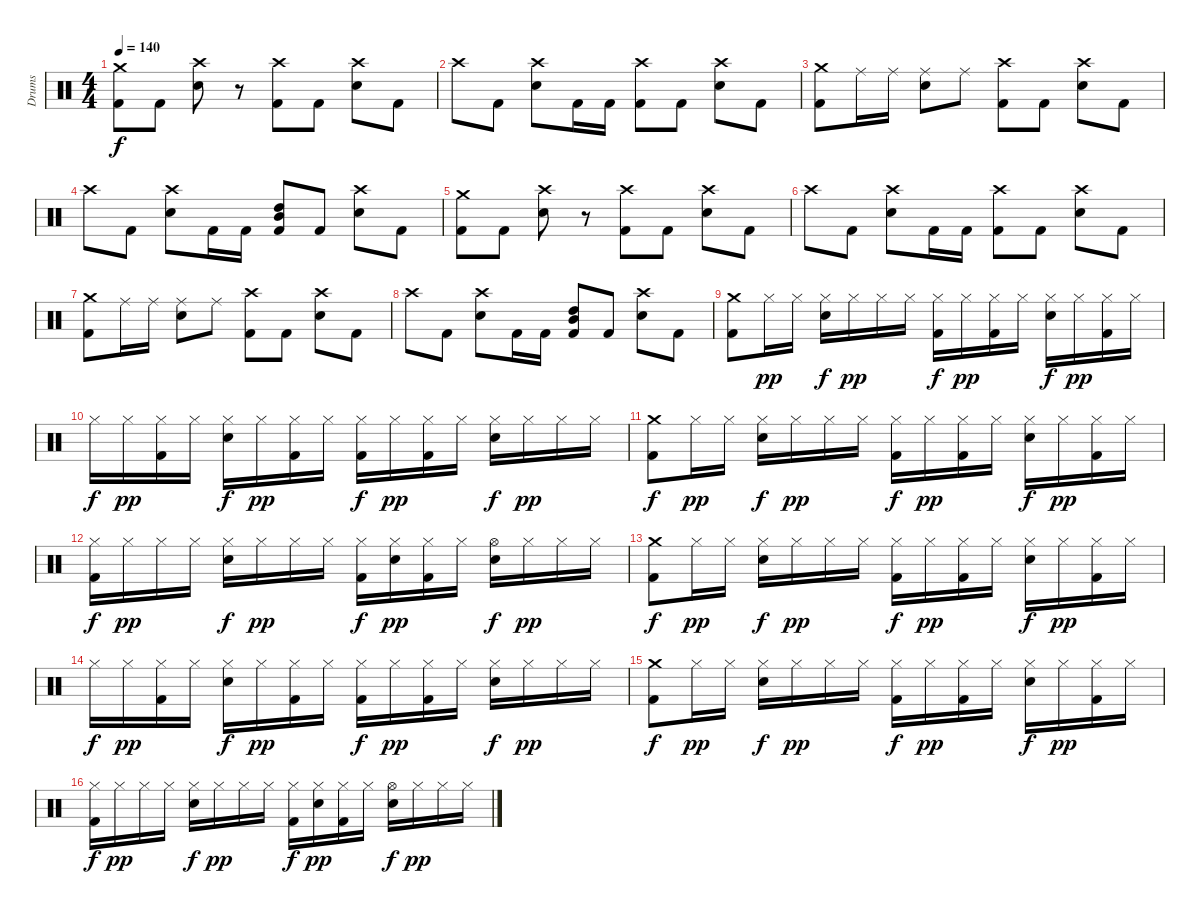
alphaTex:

\track ("Drums" "Drums") {instrument percussion}
\staff {score}
\articulation defaults
\ts (4 4)
\tempo 140
\clef neutral
\ks c
("Crash medium (hit)" "Kick (hit) 2").8{dy f} "Kick (hit) 2".8 ("Crash high (hit)" "Electric Snare (hit)").8 r.8 ("Crash high (hit)" "Kick (hit) 2").8 "Kick (hit) 2".8 ("Crash high (hit)" "Electric Snare (hit)").8 "Kick (hit) 2".8 |
"Crash high (hit)".8 "Kick (hit) 2".8 ("Crash high (hit)" "Electric Snare (hit)").8 "Kick (hit) 2".16 "Kick (hit) 2".16 ("Crash high (hit)" "Kick (hit) 2").8 "Kick (hit) 2".8 ("Crash high (hit)" "Electric Snare (hit)").8 "Kick (hit) 2".8 |
("Crash medium (hit)" "Kick (hit) 2").8 "Ride (middle)".16 "Ride (middle)".16 ("Ride (middle)" "Electric Snare (hit)").8 "Ride (middle)".8 ("Crash high (hit)" "Kick (hit) 2").8 "Kick (hit) 2".8 ("Crash high (hit)" "Electric Snare (hit)").8 "Kick (hit) 2".8 |
"Crash high (hit)".8 "Kick (hit) 2".8 ("Crash high (hit)" "Electric Snare (hit)").8 "Kick (hit) 2".16 "Kick (hit) 2".16 ("Mid Tom (hit)" "High Tom (hit)" "Kick (hit) 2").8 "Kick (hit) 2".8 ("Crash high (hit)" "Electric Snare (hit)").8 "Kick (hit) 2".8 |
("Crash medium (hit)" "Kick (hit) 2").8 "Kick (hit) 2".8 ("Crash high (hit)" "Electric Snare (hit)").8 r.8 ("Crash high (hit)" "Kick (hit) 2").8 "Kick (hit) 2".8 ("Crash high (hit)" "Electric Snare (hit)").8 "Kick (hit) 2".8 |
"Crash high (hit)".8 "Kick (hit) 2".8 ("Crash high (hit)" "Electric Snare (hit)").8 "Kick (hit) 2".16 "Kick (hit) 2".16 ("Crash high (hit)" "Kick (hit) 2").8 "Kick (hit) 2".8 ("Crash high (hit)" "Electric Snare (hit)").8 "Kick (hit) 2".8 |
("Crash medium (hit)" "Kick (hit) 2").8 "Ride (middle)".16 "Ride (middle)".16 ("Ride (middle)" "Electric Snare (hit)").8 "Ride (middle)".8 ("Crash high (hit)" "Kick (hit) 2").8 "Kick (hit) 2".8 ("Crash high (hit)" "Electric Snare (hit)").8 "Kick (hit) 2".8 |
"Crash high (hit)".8 "Kick (hit) 2".8 ("Crash high (hit)" "Electric Snare (hit)").8 "Kick (hit) 2".16 "Kick (hit) 2".16 ("Mid Tom (hit)" "High Tom (hit)" "Kick (hit) 2").8 "Kick (hit) 2".8 ("Crash high (hit)" "Electric Snare (hit)").8 "Kick (hit) 2".8 |
("Crash medium (hit)" "Kick (hit) 2").8 "Hi-Hat (closed)".16{dy pp} "Hi-Hat (closed)".16 ("Hi-Hat (closed)" "Electric Snare (hit)").16{dy f} "Hi-Hat (closed)".16{dy pp} "Hi-Hat (closed)".16 "Hi-Hat (closed)".16 ("Hi-Hat (closed)" "Kick (hit) 2").16{dy f} "Hi-Hat (closed)".16{dy pp} ("Hi-Hat (closed)" "Kick (hit) 2").16 "Hi-Hat (closed)".16 ("Hi-Hat (closed)" "Electric Snare (hit)").16{dy f} "Hi-Hat (closed)".16{dy pp} ("Hi-Hat (closed)" "Kick (hit) 2").16 "Hi-Hat (closed)".16 |
"Hi-Hat (closed)".16{dy f} "Hi-Hat (closed)".16{dy pp} ("Hi-Hat (closed)" "Kick (hit) 2").16 "Hi-Hat (closed)".16 ("Hi-Hat (closed)" "Electric Snare (hit)").16{dy f} "Hi-Hat (closed)".16{dy pp} ("Hi-Hat (closed)" "Kick (hit) 2").16 "Hi-Hat (closed)".16 ("Hi-Hat (closed)" "Kick (hit) 2").16{dy f} "Hi-Hat (closed)".16{dy pp} ("Hi-Hat (closed)" "Kick (hit) 2").16 "Hi-Hat (closed)".16 ("Hi-Hat (closed)" "Electric Snare (hit)").16{dy f} "Hi-Hat (closed)".16{dy pp} "Hi-Hat (closed)".16 "Hi-Hat (closed)".16 |
("Crash medium (hit)" "Kick (hit) 2").8{dy f} "Hi-Hat (closed)".16{dy pp} "Hi-Hat (closed)".16 ("Hi-Hat (closed)" "Electric Snare (hit)").16{dy f} "Hi-Hat (closed)".16{dy pp} "Hi-Hat (closed)".16 "Hi-Hat (closed)".16 ("Hi-Hat (closed)" "Kick (hit) 2").16{dy f} "Hi-Hat (closed)".16{dy pp} ("Hi-Hat (closed)" "Kick (hit) 2").16 "Hi-Hat (closed)".16 ("Hi-Hat (closed)" "Electric Snare (hit)").16{dy f} "Hi-Hat (closed)".16{dy pp} ("Hi-Hat (closed)" "Kick (hit) 2").16 "Hi-Hat (closed)".16 |
("Hi-Hat (closed)" "Kick (hit) 2").16{dy f} "Hi-Hat (closed)".16{dy pp} "Hi-Hat (closed)".16 "Hi-Hat (closed)".16 ("Hi-Hat (closed)" "Electric Snare (hit)").16{dy f} "Hi-Hat (closed)".16{dy pp} "Hi-Hat (closed)".16 "Hi-Hat (closed)".16 ("Hi-Hat (closed)" "Kick (hit) 2").16{dy f} ("Hi-Hat (closed)" "Electric Snare (hit)").16{dy pp} ("Hi-Hat (closed)" "Kick (hit) 2").16 "Hi-Hat (closed)".16 ("Hi-Hat (open)" "Electric Snare (hit)").16{dy f} "Hi-Hat (closed)".16{dy pp} "Hi-Hat (closed)".16 "Hi-Hat (closed)".16 |
("Crash medium (hit)" "Kick (hit) 2").8{dy f} "Hi-Hat (closed)".16{dy pp} "Hi-Hat (closed)".16 ("Hi-Hat (closed)" "Electric Snare (hit)").16{dy f} "Hi-Hat (closed)".16{dy pp} "Hi-Hat (closed)".16 "Hi-Hat (closed)".16 ("Hi-Hat (closed)" "Kick (hit) 2").16{dy f} "Hi-Hat (closed)".16{dy pp} ("Hi-Hat (closed)" "Kick (hit) 2").16 "Hi-Hat (closed)".16 ("Hi-Hat (closed)" "Electric Snare (hit)").16{dy f} "Hi-Hat (closed)".16{dy pp} ("Hi-Hat (closed)" "Kick (hit) 2").16 "Hi-Hat (closed)".16 |
"Hi-Hat (closed)".16{dy f} "Hi-Hat (closed)".16{dy pp} ("Hi-Hat (closed)" "Kick (hit) 2").16 "Hi-Hat (closed)".16 ("Hi-Hat (closed)" "Electric Snare (hit)").16{dy f} "Hi-Hat (closed)".16{dy pp} ("Hi-Hat (closed)" "Kick (hit) 2").16 "Hi-Hat (closed)".16 ("Hi-Hat (closed)" "Kick (hit) 2").16{dy f} "Hi-Hat (closed)".16{dy pp} ("Hi-Hat (closed)" "Kick (hit) 2").16 "Hi-Hat (closed)".16 ("Hi-Hat (closed)" "Electric Snare (hit)").16{dy f} "Hi-Hat (closed)".16{dy pp} "Hi-Hat (closed)".16 "Hi-Hat (closed)".16 |
("Crash medium (hit)" "Kick (hit) 2").8{dy f} "Hi-Hat (closed)".16{dy pp} "Hi-Hat (closed)".16 ("Hi-Hat (closed)" "Electric Snare (hit)").16{dy f} "Hi-Hat (closed)".16{dy pp} "Hi-Hat (closed)".16 "Hi-Hat (closed)".16 ("Hi-Hat (closed)" "Kick (hit) 2").16{dy f} "Hi-Hat (closed)".16{dy pp} ("Hi-Hat (closed)" "Kick (hit) 2").16 "Hi-Hat (closed)".16 ("Hi-Hat (closed)" "Electric Snare (hit)").16{dy f} "Hi-Hat (closed)".16{dy pp} ("Hi-Hat (closed)" "Kick (hit) 2").16 "Hi-Hat (closed)".16 |
("Hi-Hat (closed)" "Kick (hit) 2").16{dy f} "Hi-Hat (closed)".16{dy pp} "Hi-Hat (closed)".16 "Hi-Hat (closed)".16 ("Hi-Hat (closed)" "Electric Snare (hit)").16{dy f} "Hi-Hat (closed)".16{dy pp} "Hi-Hat (closed)".16 "Hi-Hat (closed)".16 ("Hi-Hat (closed)" "Kick (hit) 2").16{dy f} ("Hi-Hat (closed)" "Electric Snare (hit)").16{dy pp} ("Hi-Hat (closed)" "Kick (hit) 2").16 "Hi-Hat (closed)".16 ("Hi-Hat (open)" "Electric Snare (hit)").16{dy f} "Hi-Hat (closed)".16{dy pp} "Hi-Hat (closed)".16 "Hi-Hat (closed)".16
